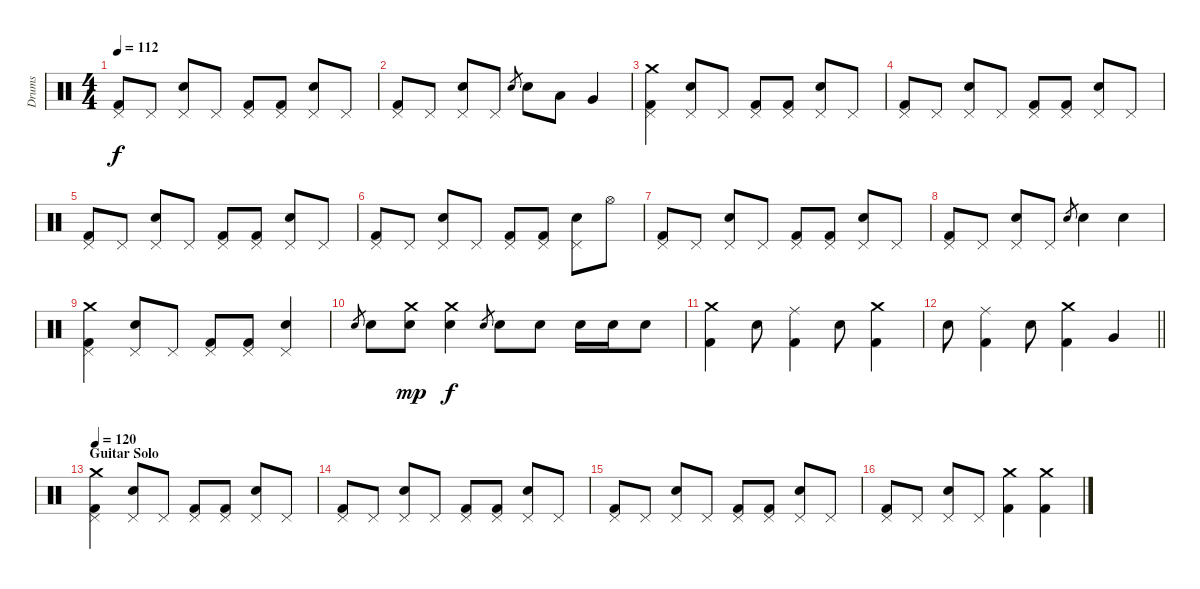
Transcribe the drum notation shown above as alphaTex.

\track ("Drums" "Drums") {instrument percussion}
\staff {score}
\articulation defaults
\ts (4 4)
\tempo 112
\clef neutral
\ks c
("Pedal Hi-Hat (hit)" "Kick (hit) 2").8{dy f} "Pedal Hi-Hat (hit)".8 ("Pedal Hi-Hat (hit)" "Electric Snare (hit)").8 "Pedal Hi-Hat (hit)".8 ("Pedal Hi-Hat (hit)" "Kick (hit) 2").8 ("Pedal Hi-Hat (hit)" "Kick (hit) 2").8 ("Pedal Hi-Hat (hit)" "Electric Snare (hit)").8 "Pedal Hi-Hat (hit)".8 |
("Pedal Hi-Hat (hit)" "Kick (hit) 2").8 "Pedal Hi-Hat (hit)".8 ("Pedal Hi-Hat (hit)" "Electric Snare (hit)").8 "Pedal Hi-Hat (hit)".8 "Electric Snare (hit)".8{gr} "Electric Snare (hit)".8 "Low Tom (hit)".8 "Very Low Tom (hit)".4 |
("Crash medium (hit)" "Pedal Hi-Hat (hit)" "Kick (hit) 2").4 ("Pedal Hi-Hat (hit)" "Electric Snare (hit)").8 "Pedal Hi-Hat (hit)".8 ("Pedal Hi-Hat (hit)" "Kick (hit) 2").8 ("Pedal Hi-Hat (hit)" "Kick (hit) 2").8 ("Pedal Hi-Hat (hit)" "Electric Snare (hit)").8 "Pedal Hi-Hat (hit)".8 |
("Pedal Hi-Hat (hit)" "Kick (hit) 2").8 "Pedal Hi-Hat (hit)".8 ("Pedal Hi-Hat (hit)" "Electric Snare (hit)").8 "Pedal Hi-Hat (hit)".8 ("Pedal Hi-Hat (hit)" "Kick (hit) 2").8 ("Pedal Hi-Hat (hit)" "Kick (hit) 2").8 ("Pedal Hi-Hat (hit)" "Electric Snare (hit)").8 "Pedal Hi-Hat (hit)".8 |
("Pedal Hi-Hat (hit)" "Kick (hit) 2").8 "Pedal Hi-Hat (hit)".8 ("Pedal Hi-Hat (hit)" "Electric Snare (hit)").8 "Pedal Hi-Hat (hit)".8 ("Pedal Hi-Hat (hit)" "Kick (hit) 2").8 ("Pedal Hi-Hat (hit)" "Kick (hit) 2").8 ("Pedal Hi-Hat (hit)" "Electric Snare (hit)").8 "Pedal Hi-Hat (hit)".8 |
("Pedal Hi-Hat (hit)" "Kick (hit) 2").8 "Pedal Hi-Hat (hit)".8 ("Pedal Hi-Hat (hit)" "Electric Snare (hit)").8 "Pedal Hi-Hat (hit)".8 ("Pedal Hi-Hat (hit)" "Kick (hit) 2").8 ("Pedal Hi-Hat (hit)" "Kick (hit) 2").8 ("Pedal Hi-Hat (hit)" "Electric Snare (hit)").8 "Hi-Hat (open)".8 |
("Pedal Hi-Hat (hit)" "Kick (hit) 2").8 "Pedal Hi-Hat (hit)".8 ("Pedal Hi-Hat (hit)" "Electric Snare (hit)").8 "Pedal Hi-Hat (hit)".8 ("Pedal Hi-Hat (hit)" "Kick (hit) 2").8 ("Pedal Hi-Hat (hit)" "Kick (hit) 2").8 ("Pedal Hi-Hat (hit)" "Electric Snare (hit)").8 "Pedal Hi-Hat (hit)".8 |
("Pedal Hi-Hat (hit)" "Kick (hit) 2").8 "Pedal Hi-Hat (hit)".8 ("Pedal Hi-Hat (hit)" "Electric Snare (hit)").8 "Pedal Hi-Hat (hit)".8 "Electric Snare (hit)".8{gr} "Electric Snare (hit)".4 "Electric Snare (hit)".4 |
("Crash medium (hit)" "Pedal Hi-Hat (hit)" "Kick (hit) 2").4 ("Pedal Hi-Hat (hit)" "Electric Snare (hit)").8 "Pedal Hi-Hat (hit)".8 ("Pedal Hi-Hat (hit)" "Kick (hit) 2").8 ("Pedal Hi-Hat (hit)" "Kick (hit) 2").8 ("Pedal Hi-Hat (hit)" "Electric Snare (hit)").4 |
"Electric Snare (hit)".8{gr} "Electric Snare (hit)".8 ("Crash medium (hit)" "Electric Snare (hit)").8{dy mp} ("Crash medium (hit)" "Electric Snare (hit)").4{dy f} "Electric Snare (hit)".8{gr} "Electric Snare (hit)".8 "Electric Snare (hit)".8 "Electric Snare (hit)".16 "Electric Snare (hit)".16 "Electric Snare (hit)".8 |
("Crash medium (hit)" "Kick (hit) 2").4 "Electric Snare (hit)".8 ("Ride (middle)" "Kick (hit) 2").4 "Electric Snare (hit)".8 ("Crash medium (hit)" "Kick (hit) 2").4 |
\barLineRight lightlight "Electric Snare (hit)".8
("Ride (middle)" "Kick (hit) 2").4 "Electric Snare (hit)".8 ("Crash medium (hit)" "Kick (hit) 2").4 "Very Low Tom (hit)".4 |
\section ("" "Guitar Solo")
\tempo 120
("Crash medium (hit)" "Pedal Hi-Hat (hit)" "Kick (hit) 2").4 ("Pedal Hi-Hat (hit)" "Electric Snare (hit)").8 "Pedal Hi-Hat (hit)".8 ("Pedal Hi-Hat (hit)" "Kick (hit) 2").8 ("Pedal Hi-Hat (hit)" "Kick (hit) 2").8 ("Pedal Hi-Hat (hit)" "Electric Snare (hit)").8 "Pedal Hi-Hat (hit)".8 |
("Pedal Hi-Hat (hit)" "Kick (hit) 2").8 "Pedal Hi-Hat (hit)".8 ("Pedal Hi-Hat (hit)" "Electric Snare (hit)").8 "Pedal Hi-Hat (hit)".8 ("Pedal Hi-Hat (hit)" "Kick (hit) 2").8 ("Pedal Hi-Hat (hit)" "Kick (hit) 2").8 ("Pedal Hi-Hat (hit)" "Electric Snare (hit)").8 "Pedal Hi-Hat (hit)".8 |
("Pedal Hi-Hat (hit)" "Kick (hit) 2").8 "Pedal Hi-Hat (hit)".8 ("Pedal Hi-Hat (hit)" "Electric Snare (hit)").8 "Pedal Hi-Hat (hit)".8 ("Pedal Hi-Hat (hit)" "Kick (hit) 2").8 ("Pedal Hi-Hat (hit)" "Kick (hit) 2").8 ("Pedal Hi-Hat (hit)" "Electric Snare (hit)").8 "Pedal Hi-Hat (hit)".8 |
("Pedal Hi-Hat (hit)" "Kick (hit) 2").8 "Pedal Hi-Hat (hit)".8 ("Pedal Hi-Hat (hit)" "Electric Snare (hit)").8 "Pedal Hi-Hat (hit)".8 ("Crash medium (hit)" "Kick (hit) 2").4 ("Crash medium (hit)" "Kick (hit) 2").4
